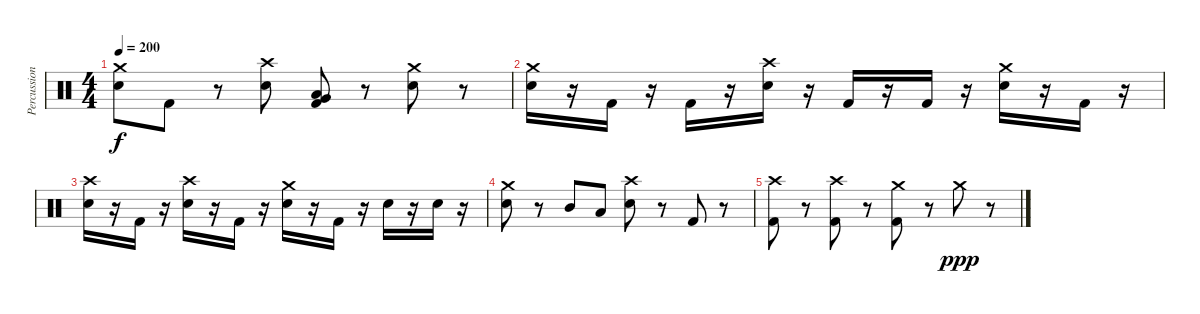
\track ("Percussion" "Percussion") {instrument percussion}
\staff {score}
\articulation defaults
\ts (4 4)
\tempo 200
\clef neutral
\ks c
("Crash medium (hit)" "Snare (hit) 2").8{dy f} "Kick (hit) 2".8 r.8 ("Crash high (hit)" "Snare (hit) 2").8 ("Very Low Tom (hit)" "Low Floor Tom (hit)" "Kick (hit) 2").8 r.8 ("Crash medium (hit)" "Snare (hit) 2").8 r.8 |
("Crash medium (hit)" "Snare (hit) 2").16 r.16 "Kick (hit) 2".16 r.16 "Kick (hit) 2".16 r.16 ("Crash high (hit)" "Snare (hit) 2").16 r.16 "Kick (hit) 2".16 r.16 "Kick (hit) 2".16 r.16 ("Crash medium (hit)" "Snare (hit) 2").16 r.16 "Kick (hit) 2".16 r.16 |
("Crash high (hit)" "Snare (hit) 2").16 r.16 "Kick (hit) 2".16 r.16 ("Crash high (hit)" "Snare (hit) 2").16 r.16 "Kick (hit) 2".16 r.16 ("Crash medium (hit)" "Snare (hit) 2").16 r.16 "Kick (hit) 2".16 r.16 "Snare (hit) 2".16 r.16 "Snare (hit) 2".16 r.16 |
("Crash medium (hit)" "Snare (hit) 2").8 r.8 "Mid Tom (hit)".8 "Low Tom (hit)".8 ("Crash high (hit)" "Snare (hit) 2").8 r.8 "Kick (hit) 2".8 r.8 |
("Crash high (hit)" "Kick (hit) 2").8 r.8 ("Crash high (hit)" "Kick (hit) 2").8 r.8 ("Crash medium (hit)" "Kick (hit) 2").8 r.8 "Crash medium (hit)".8{dy ppp} r.8
